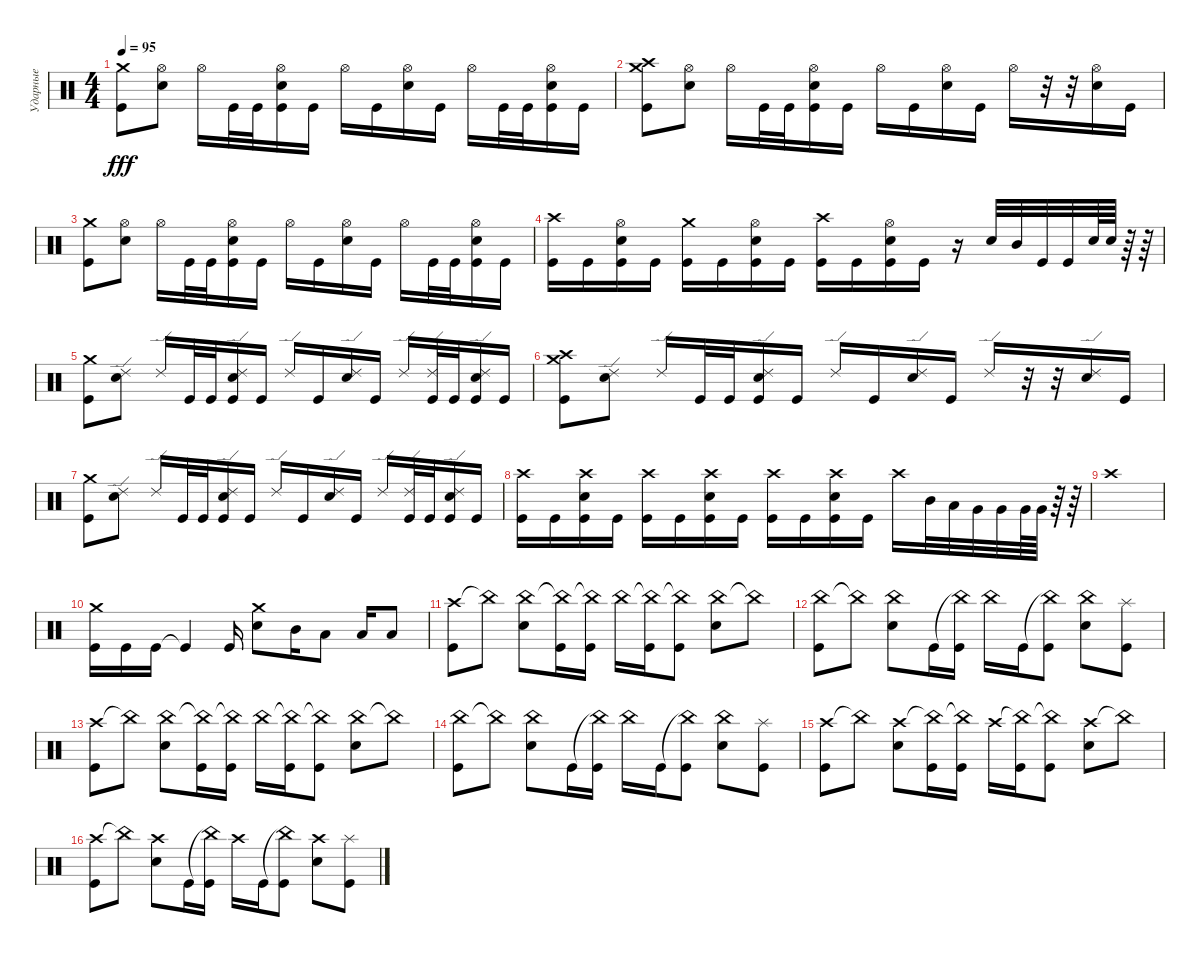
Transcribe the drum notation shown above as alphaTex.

\track ("Ударные" "Ударные") {instrument percussion}
\staff {score}
\articulation defaults
\ts (4 4)
\tempo 95
\clef neutral
\ks c
("Crash medium (hit)" "Kick (hit)").8{dy fff} ("Hi-Hat (open)" "Snare (hit) 2").8 "Hi-Hat (open)".16 "Kick (hit)".32 "Kick (hit)".32 ("Hi-Hat (open)" "Snare (hit) 2" "Kick (hit)").16 "Kick (hit)".16 "Hi-Hat (open)".16 "Kick (hit)".16 ("Hi-Hat (open)" "Snare (hit) 2").16 "Kick (hit)".16 "Hi-Hat (open)".16 "Kick (hit)".32 "Kick (hit)".32 ("Hi-Hat (open)" "Snare (hit) 2" "Kick (hit)").16 "Kick (hit)".16 |
("Crash high (hit)" "Crash medium (hit)" "Kick (hit)").8 ("Hi-Hat (open)" "Snare (hit) 2").8 "Hi-Hat (open)".16 "Kick (hit)".32 "Kick (hit)".32 ("Hi-Hat (open)" "Snare (hit) 2" "Kick (hit)").16 "Kick (hit)".16 "Hi-Hat (open)".16 "Kick (hit)".16 ("Hi-Hat (open)" "Snare (hit) 2").16 "Kick (hit)".16 "Hi-Hat (open)".16 r.32 r.32 ("Hi-Hat (open)" "Snare (hit) 2").16 "Kick (hit)".16 |
("Crash medium (hit)" "Kick (hit)").8 ("Hi-Hat (open)" "Snare (hit) 2").8 "Hi-Hat (open)".16 "Kick (hit)".32 "Kick (hit)".32 ("Hi-Hat (open)" "Snare (hit) 2" "Kick (hit)").16 "Kick (hit)".16 "Hi-Hat (open)".16 "Kick (hit)".16 ("Hi-Hat (open)" "Snare (hit) 2").16 "Kick (hit)".16 "Hi-Hat (open)".16 "Kick (hit)".32 "Kick (hit)".32 ("Hi-Hat (open)" "Snare (hit) 2" "Kick (hit)").16 "Kick (hit)".16 |
("Crash high (hit)" "Kick (hit)").16 "Kick (hit)".16 ("Hi-Hat (open)" "Snare (hit) 2" "Kick (hit)").16 "Kick (hit)".16 ("Crash medium (hit)" "Kick (hit)").16 "Kick (hit)".16 ("Hi-Hat (open)" "Snare (hit) 2" "Kick (hit)").16 "Kick (hit)".16 ("Crash high (hit)" "Kick (hit)").16 "Kick (hit)".16 ("Hi-Hat (open)" "Snare (hit) 2" "Kick (hit)").16 "Kick (hit)".16 r.16 "Electric Snare (hit)".32 "Mid Tom (hit)".32 "Kick (hit)".32 "Kick (hit)".32 "Electric Snare (hit)".64 "Electric Snare (hit)".64 r.64 r.64 |
("Crash medium (hit)" "Kick (hit)").8 ("Ride (edge) 2" "Snare (hit) 2").8 "Ride (edge) 2".16 "Kick (hit)".32 "Kick (hit)".32 ("Ride (edge) 2" "Snare (hit) 2" "Kick (hit)").16 "Kick (hit)".16 "Ride (edge) 2".16 "Kick (hit)".16 ("Ride (edge) 2" "Snare (hit) 2").16 "Kick (hit)".16 "Ride (edge) 2".16 ("Ride (edge) 2" "Kick (hit)").32 "Kick (hit)".32 ("Ride (edge) 2" "Snare (hit) 2" "Kick (hit)").16 "Kick (hit)".16 |
("Crash high (hit)" "Crash medium (hit)" "Kick (hit)").8 ("Ride (edge) 2" "Snare (hit) 2").8 "Ride (edge) 2".16 "Kick (hit)".32 "Kick (hit)".32 ("Ride (edge) 2" "Snare (hit) 2" "Kick (hit)").16 "Kick (hit)".16 "Ride (edge) 2".16 "Kick (hit)".16 ("Ride (edge) 2" "Snare (hit) 2").16 "Kick (hit)".16 "Ride (edge) 2".16 r.32 r.32 ("Ride (edge) 2" "Snare (hit) 2").16 "Kick (hit)".16 |
("Crash medium (hit)" "Kick (hit)").8 ("Ride (edge) 2" "Snare (hit) 2").8 "Ride (edge) 2".16 "Kick (hit)".32 "Kick (hit)".32 ("Ride (edge) 2" "Snare (hit) 2" "Kick (hit)").16 "Kick (hit)".16 "Ride (edge) 2".16 "Kick (hit)".16 ("Ride (edge) 2" "Snare (hit) 2").16 "Kick (hit)".16 "Ride (edge) 2".16 ("Ride (edge) 2" "Kick (hit)").32 "Kick (hit)".32 ("Ride (edge) 2" "Snare (hit) 2" "Kick (hit)").16 "Kick (hit)".16 |
("Crash high (hit)" "Kick (hit)").16 "Kick (hit)".16 ("Crash high (hit)" "Snare (hit) 2" "Kick (hit)").16 "Kick (hit)".16 ("Crash high (hit)" "Kick (hit)").16 "Kick (hit)".16 ("Crash high (hit)" "Snare (hit) 2" "Kick (hit)").16 "Kick (hit)".16 ("Crash high (hit)" "Kick (hit)").16 "Kick (hit)".16 ("Crash high (hit)" "Snare (hit) 2" "Kick (hit)").16 "Kick (hit)".16 "Crash high (hit)".16 "Mid Tom (hit)".32 "Low Tom (hit)".32 "Very Low Tom (hit)".32 "Very Low Tom (hit)".32 "Very Low Tom (hit)".64 "Very Low Tom (hit)".64 r.64 r.64 |
"Crash high (hit)".1 |
("Crash medium (hit)" "Kick (hit)").16 "Kick (hit)".16 "Kick (hit)".16 "Kick (hit)"{t}.4 "Kick (hit)".16 ("Crash medium (hit)" "Snare (hit) 2").8 "Mid Tom (hit)".16 "Low Tom (hit)".8 "Low Tom (hit)".16 "Low Floor Tom (hit)".8 |
("Crash high (hit)" "Kick (hit)").8 "China (hit)"{t}.8 ("China (hit)" "Snare (hit) 2").8 ("China (hit)"{t} "Kick (hit)").16 ("China (hit)"{t} "Kick (hit)").16 "China (hit)".16 ("China (hit)"{t} "Kick (hit)").16 ("China (hit)"{t} "Kick (hit)").8 ("China (hit)" "Snare (hit) 2").8 "China (hit)"{t}.8 |
("China (hit)" "Kick (hit)").8 "China (hit)"{t}.8 ("China (hit)" "Snare (hit) 2").8 "Kick (hit)".16 ("China (hit)"{t} "Kick (hit)").16 "China (hit)".16 "Kick (hit)".16 ("China (hit)"{t} "Kick (hit)").8 ("China (hit)" "Snare (hit) 2").8 ("Splash (hit)" "Kick (hit)").8 |
("Crash high (hit)" "Kick (hit)").8 "China (hit)"{t}.8 ("China (hit)" "Snare (hit) 2").8 ("China (hit)"{t} "Kick (hit)").16 ("China (hit)"{t} "Kick (hit)").16 "China (hit)".16 ("China (hit)"{t} "Kick (hit)").16 ("China (hit)"{t} "Kick (hit)").8 ("China (hit)" "Snare (hit) 2").8 "China (hit)"{t}.8 |
("China (hit)" "Kick (hit)").8 "China (hit)"{t}.8 ("China (hit)" "Snare (hit) 2").8 "Kick (hit)".16 ("China (hit)"{t} "Kick (hit)").16 "China (hit)".16 "Kick (hit)".16 ("China (hit)"{t} "Kick (hit)").8 ("China (hit)" "Snare (hit) 2").8 ("Splash (hit)" "Kick (hit)").8 |
("Crash high (hit)" "Kick (hit)").8 "China (hit)"{t}.8 ("Crash high (hit)" "Snare (hit) 2").8 ("China (hit)"{t} "Kick (hit)").16 ("China (hit)"{t} "Kick (hit)").16 "Crash high (hit)".16 ("China (hit)"{t} "Kick (hit)").16 ("China (hit)"{t} "Kick (hit)").8 ("Crash high (hit)" "Snare (hit) 2").8 "China (hit)"{t}.8 |
("Crash high (hit)" "Kick (hit)").8 "China (hit)"{t}.8 ("Crash high (hit)" "Snare (hit) 2").8 "Kick (hit)".16 ("China (hit)"{t} "Kick (hit)").16 "Crash high (hit)".16 "Kick (hit)".16 ("China (hit)"{t} "Kick (hit)").8 ("Crash high (hit)" "Snare (hit) 2").8 ("Splash (hit)" "Kick (hit)").8
